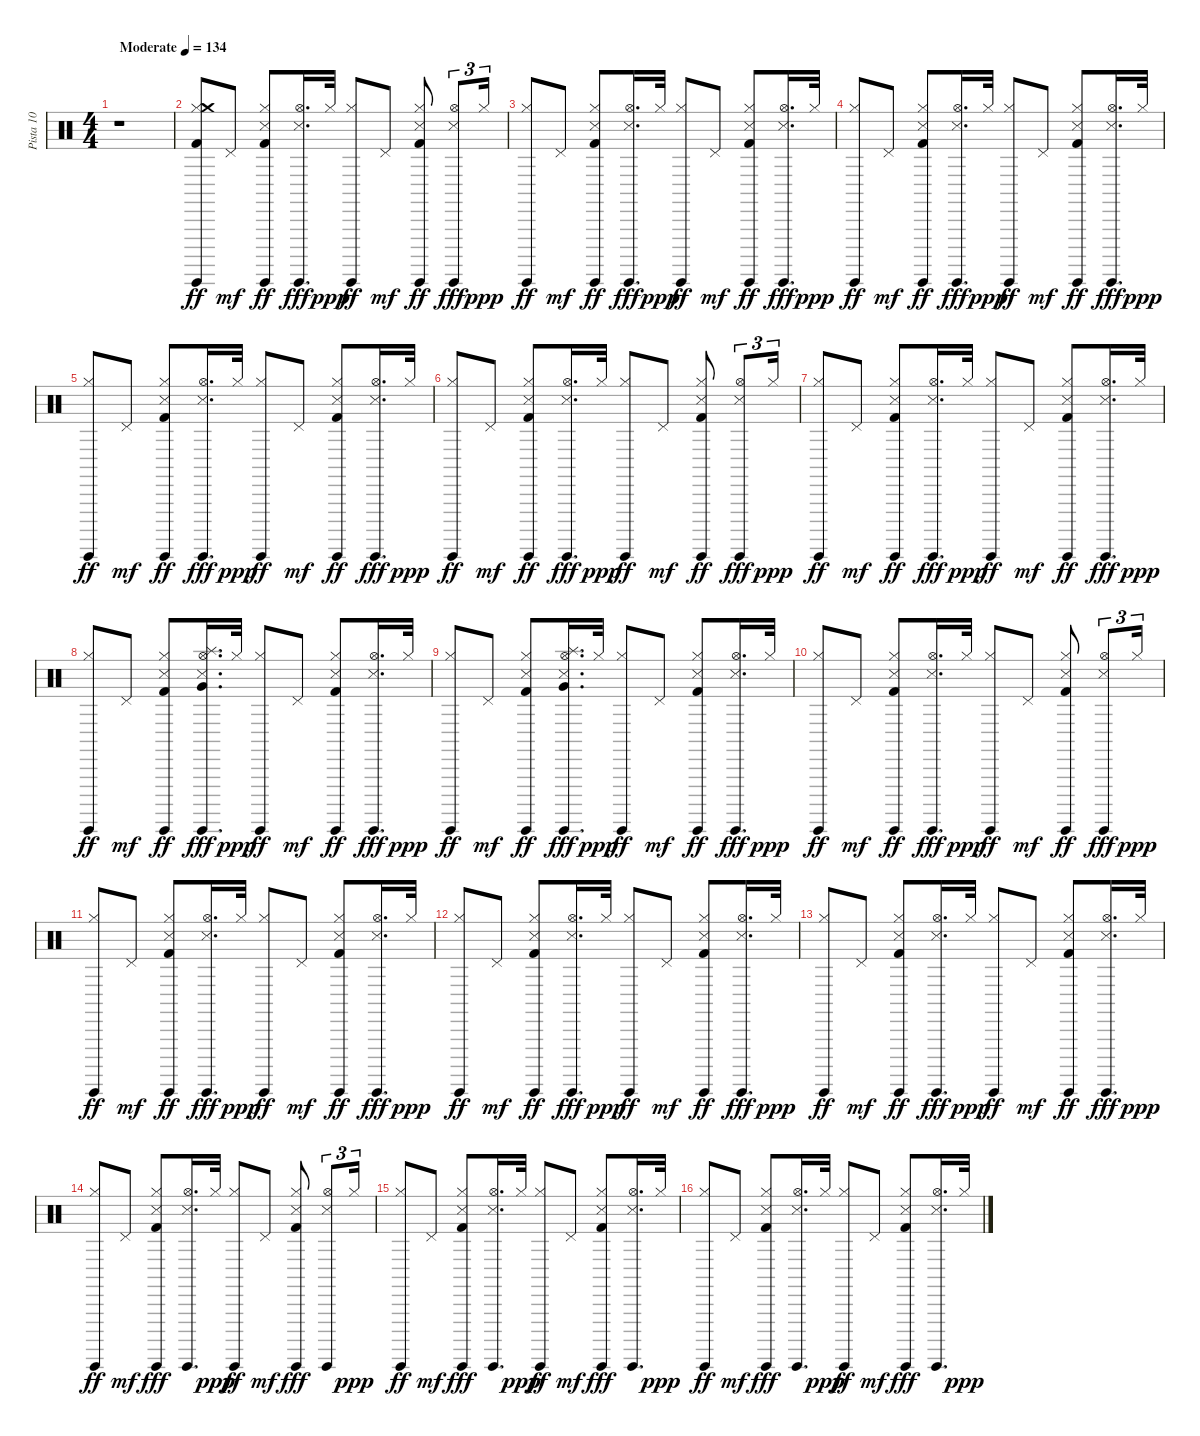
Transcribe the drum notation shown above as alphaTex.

\track ("Pista 10" "Pista 10") {instrument percussion}
\staff {score}
\articulation defaults
\ts (4 4)
\tempo (134 "Moderate")
\clef neutral
\ks c
r.1{dy ff} |
("Guiro (hit)" "Hi-Hat (closed)" "Kick (hit) 2" "Crash medium (hit)").8 "Pedal Hi-Hat (hit)".8{dy mf} ("Guiro (hit)" "Hi-Hat (closed)" "Snare (side stick) 3" "Kick (hit) 2").8{dy ff} ("Guiro (hit)" "Hi-Hat (open)" "Snare (side stick) 3").16{d dy fff} "Hi-Hat (closed)".32{dy ppp} ("Guiro (hit)" "Hi-Hat (closed)").8{dy ff} "Pedal Hi-Hat (hit)".8{dy mf} ("Guiro (hit)" "Hi-Hat (closed)" "Snare (side stick) 3" "Kick (hit) 2").8{dy ff} ("Guiro (hit)" "Hi-Hat (open)" "Snare (side stick) 3").8{tu (3 2) dy fff} "Hi-Hat (closed)".16{tu (3 2) dy ppp} |
("Guiro (hit)" "Hi-Hat (closed)").8{dy ff} "Pedal Hi-Hat (hit)".8{dy mf} ("Guiro (hit)" "Hi-Hat (closed)" "Snare (side stick) 3" "Kick (hit) 2").8{dy ff} ("Guiro (hit)" "Hi-Hat (open)" "Snare (side stick) 3").16{d dy fff} "Hi-Hat (closed)".32{dy ppp} ("Guiro (hit)" "Hi-Hat (closed)").8{dy ff} "Pedal Hi-Hat (hit)".8{dy mf} ("Guiro (hit)" "Hi-Hat (closed)" "Snare (side stick) 3" "Kick (hit) 2").8{dy ff} ("Guiro (hit)" "Hi-Hat (open)" "Snare (side stick) 3").16{d dy fff} "Hi-Hat (closed)".32{dy ppp} |
("Guiro (hit)" "Hi-Hat (closed)").8{dy ff} "Pedal Hi-Hat (hit)".8{dy mf} ("Guiro (hit)" "Hi-Hat (closed)" "Snare (side stick) 3" "Kick (hit) 2").8{dy ff} ("Guiro (hit)" "Hi-Hat (open)" "Snare (side stick) 3").16{d dy fff} "Hi-Hat (closed)".32{dy ppp} ("Guiro (hit)" "Hi-Hat (closed)").8{dy ff} "Pedal Hi-Hat (hit)".8{dy mf} ("Guiro (hit)" "Hi-Hat (closed)" "Snare (side stick) 3" "Kick (hit) 2").8{dy ff} ("Guiro (hit)" "Hi-Hat (open)" "Snare (side stick) 3").16{d dy fff} "Hi-Hat (closed)".32{dy ppp} |
("Guiro (hit)" "Hi-Hat (closed)").8{dy ff} "Pedal Hi-Hat (hit)".8{dy mf} ("Guiro (hit)" "Hi-Hat (closed)" "Snare (side stick) 3" "Kick (hit) 2").8{dy ff} ("Guiro (hit)" "Hi-Hat (open)" "Snare (side stick) 3").16{d dy fff} "Hi-Hat (closed)".32{dy ppp} ("Guiro (hit)" "Hi-Hat (closed)").8{dy ff} "Pedal Hi-Hat (hit)".8{dy mf} ("Guiro (hit)" "Hi-Hat (closed)" "Snare (side stick) 3" "Kick (hit) 2").8{dy ff} ("Guiro (hit)" "Hi-Hat (open)" "Snare (side stick) 3").16{d dy fff} "Hi-Hat (closed)".32{dy ppp} |
("Hi-Hat (closed)" "Guiro (hit)").8{dy ff} "Pedal Hi-Hat (hit)".8{dy mf} ("Hi-Hat (closed)" "Guiro (hit)" "Snare (side stick) 3" "Kick (hit) 2").8{dy ff} ("Hi-Hat (open)" "Guiro (hit)" "Snare (side stick) 3").16{d dy fff} "Hi-Hat (closed)".32{dy ppp} ("Hi-Hat (closed)" "Guiro (hit)").8{dy ff} "Pedal Hi-Hat (hit)".8{dy mf} ("Hi-Hat (closed)" "Guiro (hit)" "Snare (side stick) 3" "Kick (hit) 2").8{dy ff} ("Hi-Hat (open)" "Guiro (hit)" "Snare (side stick) 3").8{tu (3 2) dy fff} "Hi-Hat (closed)".16{tu (3 2) dy ppp} |
("Hi-Hat (closed)" "Guiro (hit)").8{dy ff} "Pedal Hi-Hat (hit)".8{dy mf} ("Hi-Hat (closed)" "Guiro (hit)" "Snare (side stick) 3" "Kick (hit) 2").8{dy ff} ("Hi-Hat (open)" "Guiro (hit)" "Snare (side stick) 3").16{d dy fff} "Hi-Hat (closed)".32{dy ppp} ("Hi-Hat (closed)" "Guiro (hit)").8{dy ff} "Pedal Hi-Hat (hit)".8{dy mf} ("Hi-Hat (closed)" "Guiro (hit)" "Snare (side stick) 3" "Kick (hit) 2").8{dy ff} ("Hi-Hat (open)" "Guiro (hit)" "Snare (side stick) 3").16{d dy fff} "Hi-Hat (closed)".32{dy ppp} |
("Hi-Hat (closed)" "Guiro (hit)").8{dy ff} "Pedal Hi-Hat (hit)".8{dy mf} ("Hi-Hat (closed)" "Guiro (hit)" "Snare (side stick) 3" "Kick (hit) 2").8{dy ff} ("Hi-Hat (open)" "Guiro (hit)" "Snare (side stick) 3" "Splash (hit)" "Very Low Tom (hit)").16{d dy fff} "Hi-Hat (closed)".32{dy ppp} ("Hi-Hat (closed)" "Guiro (hit)").8{dy ff} "Pedal Hi-Hat (hit)".8{dy mf} ("Hi-Hat (closed)" "Guiro (hit)" "Snare (side stick) 3" "Kick (hit) 2").8{dy ff} ("Hi-Hat (open)" "Guiro (hit)" "Snare (side stick) 3").16{d dy fff} "Hi-Hat (closed)".32{dy ppp} |
("Hi-Hat (closed)" "Guiro (hit)").8{dy ff} "Pedal Hi-Hat (hit)".8{dy mf} ("Hi-Hat (closed)" "Guiro (hit)" "Snare (side stick) 3" "Kick (hit) 2").8{dy ff} ("Hi-Hat (open)" "Guiro (hit)" "Snare (side stick) 3" "Splash (hit)" "Very Low Tom (hit)").16{d dy fff} "Hi-Hat (closed)".32{dy ppp} ("Hi-Hat (closed)" "Guiro (hit)").8{dy ff} "Pedal Hi-Hat (hit)".8{dy mf} ("Hi-Hat (closed)" "Guiro (hit)" "Snare (side stick) 3" "Kick (hit) 2").8{dy ff} ("Hi-Hat (open)" "Guiro (hit)" "Snare (side stick) 3").16{d dy fff} "Hi-Hat (closed)".32{dy ppp} |
("Guiro (hit)" "Hi-Hat (closed)").8{dy ff} "Pedal Hi-Hat (hit)".8{dy mf} ("Guiro (hit)" "Hi-Hat (closed)" "Snare (side stick) 3" "Kick (hit) 2").8{dy ff} ("Guiro (hit)" "Hi-Hat (open)" "Snare (side stick) 3").16{d dy fff} "Hi-Hat (closed)".32{dy ppp} ("Guiro (hit)" "Hi-Hat (closed)").8{dy ff} "Pedal Hi-Hat (hit)".8{dy mf} ("Guiro (hit)" "Hi-Hat (closed)" "Snare (side stick) 3" "Kick (hit) 2").8{dy ff} ("Guiro (hit)" "Hi-Hat (open)" "Snare (side stick) 3").8{tu (3 2) dy fff} "Hi-Hat (closed)".16{tu (3 2) dy ppp} |
("Guiro (hit)" "Hi-Hat (closed)").8{dy ff} "Pedal Hi-Hat (hit)".8{dy mf} ("Guiro (hit)" "Hi-Hat (closed)" "Snare (side stick) 3" "Kick (hit) 2").8{dy ff} ("Guiro (hit)" "Hi-Hat (open)" "Snare (side stick) 3").16{d dy fff} "Hi-Hat (closed)".32{dy ppp} ("Guiro (hit)" "Hi-Hat (closed)").8{dy ff} "Pedal Hi-Hat (hit)".8{dy mf} ("Guiro (hit)" "Hi-Hat (closed)" "Snare (side stick) 3" "Kick (hit) 2").8{dy ff} ("Guiro (hit)" "Hi-Hat (open)" "Snare (side stick) 3").16{d dy fff} "Hi-Hat (closed)".32{dy ppp} |
("Guiro (hit)" "Hi-Hat (closed)").8{dy ff} "Pedal Hi-Hat (hit)".8{dy mf} ("Guiro (hit)" "Hi-Hat (closed)" "Snare (side stick) 3" "Kick (hit) 2").8{dy ff} ("Guiro (hit)" "Hi-Hat (open)" "Snare (side stick) 3").16{d dy fff} "Hi-Hat (closed)".32{dy ppp} ("Guiro (hit)" "Hi-Hat (closed)").8{dy ff} "Pedal Hi-Hat (hit)".8{dy mf} ("Guiro (hit)" "Hi-Hat (closed)" "Snare (side stick) 3" "Kick (hit) 2").8{dy ff} ("Guiro (hit)" "Hi-Hat (open)" "Snare (side stick) 3").16{d dy fff} "Hi-Hat (closed)".32{dy ppp} |
("Guiro (hit)" "Hi-Hat (closed)").8{dy ff} "Pedal Hi-Hat (hit)".8{dy mf} ("Guiro (hit)" "Hi-Hat (closed)" "Snare (side stick) 3" "Kick (hit) 2").8{dy ff} ("Guiro (hit)" "Hi-Hat (open)" "Snare (side stick) 3").16{d dy fff} "Hi-Hat (closed)".32{dy ppp} ("Guiro (hit)" "Hi-Hat (closed)").8{dy ff} "Pedal Hi-Hat (hit)".8{dy mf} ("Guiro (hit)" "Hi-Hat (closed)" "Snare (side stick) 3" "Kick (hit) 2").8{dy ff} ("Guiro (hit)" "Hi-Hat (open)" "Snare (side stick) 3").16{d dy fff} "Hi-Hat (closed)".32{dy ppp} |
("Guiro (hit)" "Hi-Hat (closed)").8{dy ff} "Pedal Hi-Hat (hit)".8{dy mf} ("Guiro (hit)" "Hi-Hat (closed)" "Kick (hit) 2" "Snare (side stick) 3").8{dy fff} ("Guiro (hit)" "Hi-Hat (open)" "Snare (side stick) 3").16{d} "Hi-Hat (closed)".32{dy ppp} ("Guiro (hit)" "Hi-Hat (closed)").8{dy ff} "Pedal Hi-Hat (hit)".8{dy mf} ("Guiro (hit)" "Hi-Hat (closed)" "Kick (hit) 2" "Snare (side stick) 3").8{dy fff} ("Guiro (hit)" "Hi-Hat (open)" "Snare (side stick) 3").8{tu (3 2)} "Hi-Hat (closed)".16{tu (3 2) dy ppp} |
("Guiro (hit)" "Hi-Hat (closed)").8{dy ff} "Pedal Hi-Hat (hit)".8{dy mf} ("Guiro (hit)" "Hi-Hat (closed)" "Kick (hit) 2" "Snare (side stick) 3").8{dy fff} ("Guiro (hit)" "Hi-Hat (open)" "Snare (side stick) 3").16{d} "Hi-Hat (closed)".32{dy ppp} ("Guiro (hit)" "Hi-Hat (closed)").8{dy ff} "Pedal Hi-Hat (hit)".8{dy mf} ("Guiro (hit)" "Hi-Hat (closed)" "Kick (hit) 2" "Snare (side stick) 3").8{dy fff} ("Guiro (hit)" "Hi-Hat (open)" "Snare (side stick) 3").16{d} "Hi-Hat (closed)".32{dy ppp} |
("Guiro (hit)" "Hi-Hat (closed)").8{dy ff} "Pedal Hi-Hat (hit)".8{dy mf} ("Guiro (hit)" "Hi-Hat (closed)" "Kick (hit) 2" "Snare (side stick) 3").8{dy fff} ("Guiro (hit)" "Hi-Hat (open)" "Snare (side stick) 3").16{d} "Hi-Hat (closed)".32{dy ppp} ("Guiro (hit)" "Hi-Hat (closed)").8{dy ff} "Pedal Hi-Hat (hit)".8{dy mf} ("Guiro (hit)" "Hi-Hat (closed)" "Kick (hit) 2" "Snare (side stick) 3").8{dy fff} ("Guiro (hit)" "Hi-Hat (open)" "Snare (side stick) 3").16{d} "Hi-Hat (closed)".32{dy ppp}
